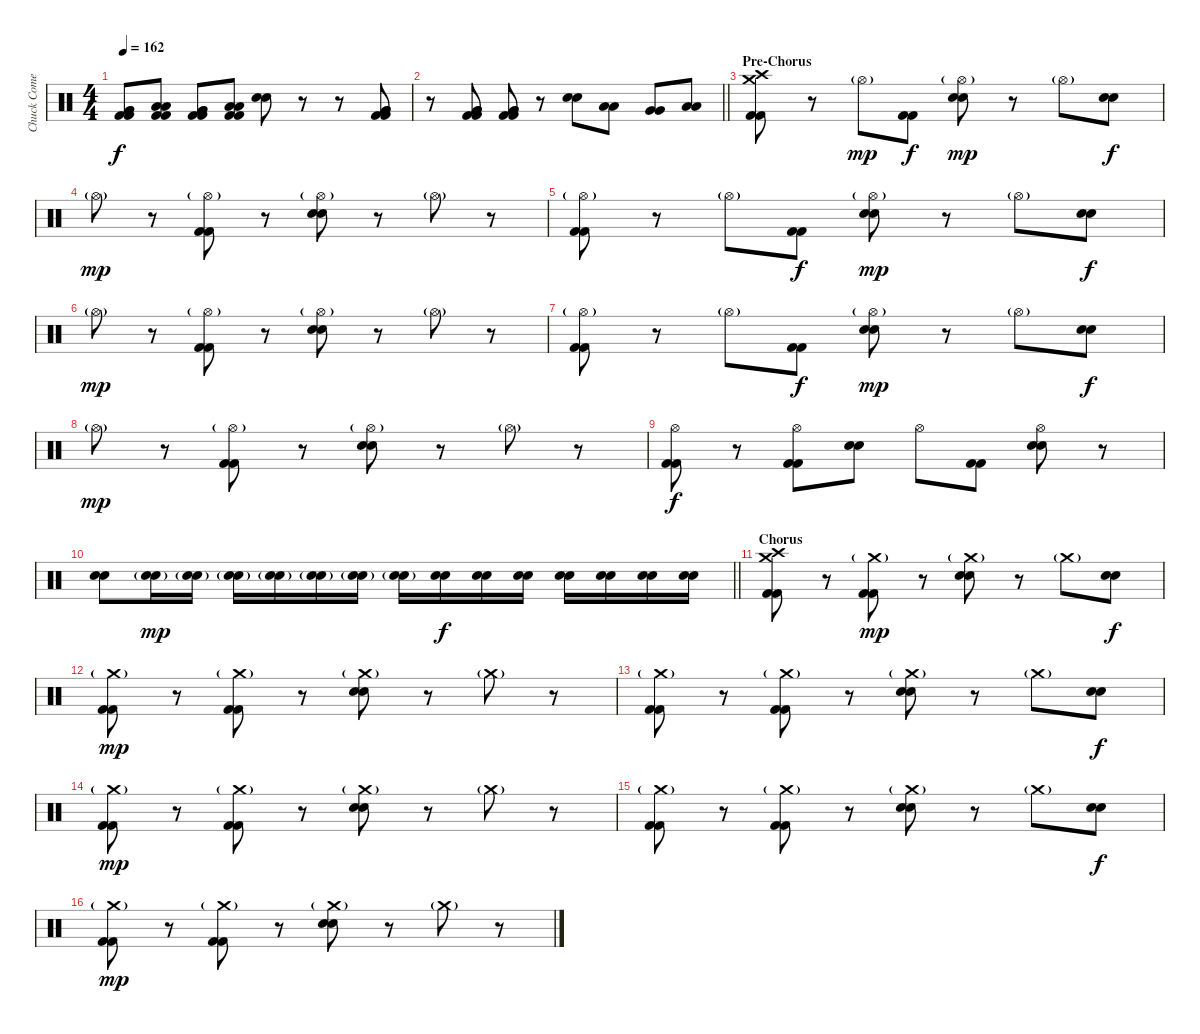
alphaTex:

\track ("Chuck Comeau" "Chuck Come") {instrument percussion}
\staff {score}
\articulation defaults
\ts (4 4)
\tempo 162
\clef neutral
\ks c
("Very Low Tom (hit)" "Very Low Tom (hit)" "Kick (hit) 2" "Kick (hit) 2").8{dy f} ("Low Tom (hit)" "Low Tom (hit)" "Kick (hit) 2" "Kick (hit) 2").8 ("Very Low Tom (hit)" "Very Low Tom (hit)" "Kick (hit) 2" "Kick (hit) 2").8 ("Low Floor Tom (hit)" "Low Floor Tom (hit)" "Kick (hit) 2" "Kick (hit) 2").8 ("Snare (hit) 2" "Snare (hit) 2").8 r.8 r.8 ("Very Low Tom (hit)" "Very Low Tom (hit)" "Kick (hit) 2" "Kick (hit) 2").8 |
\barLineRight lightlight
r.8 ("Very Low Tom (hit)" "Very Low Tom (hit)" "Kick (hit) 2" "Kick (hit) 2").8 ("Very Low Tom (hit)" "Very Low Tom (hit)" "Kick (hit) 2" "Kick (hit) 2").8 r.8 ("Snare (hit) 2" "Snare (hit) 2").8 ("Low Tom (hit)" "Low Tom (hit)").8 ("Very Low Tom (hit)" "Very Low Tom (hit)").8 ("Low Floor Tom (hit)" "Low Floor Tom (hit)").8 |
\section ("" "Pre-Chorus")
("Crash medium (hit)" "Crash high (hit)" "Kick (hit) 2" "Kick (hit) 2").8 r.8 "Hi-Hat (open)"{g}.8{dy mp} ("Kick (hit) 2" "Kick (hit) 2").8{dy f} ("Hi-Hat (open)"{g} "Snare (hit) 2" "Snare (hit) 2").8{dy mp} r.8 "Hi-Hat (open)"{g}.8 ("Snare (hit) 2" "Snare (hit) 2").8{dy f} |
"Hi-Hat (open)"{g}.8{dy mp} r.8 ("Hi-Hat (open)"{g} "Kick (hit) 2" "Kick (hit) 2").8 r.8 ("Hi-Hat (open)"{g} "Snare (hit) 2" "Snare (hit) 2").8 r.8 "Hi-Hat (open)"{g}.8 r.8 |
("Hi-Hat (open)"{g} "Kick (hit) 2" "Kick (hit) 2").8 r.8 "Hi-Hat (open)"{g}.8 ("Kick (hit) 2" "Kick (hit) 2").8{dy f} ("Hi-Hat (open)"{g} "Snare (hit) 2" "Snare (hit) 2").8{dy mp} r.8 "Hi-Hat (open)"{g}.8 ("Snare (hit) 2" "Snare (hit) 2").8{dy f} |
"Hi-Hat (open)"{g}.8{dy mp} r.8 ("Hi-Hat (open)"{g} "Kick (hit) 2" "Kick (hit) 2").8 r.8 ("Hi-Hat (open)"{g} "Snare (hit) 2" "Snare (hit) 2").8 r.8 "Hi-Hat (open)"{g}.8 r.8 |
("Hi-Hat (open)"{g} "Kick (hit) 2" "Kick (hit) 2").8 r.8 "Hi-Hat (open)"{g}.8 ("Kick (hit) 2" "Kick (hit) 2").8{dy f} ("Hi-Hat (open)"{g} "Snare (hit) 2" "Snare (hit) 2").8{dy mp} r.8 "Hi-Hat (open)"{g}.8 ("Snare (hit) 2" "Snare (hit) 2").8{dy f} |
"Hi-Hat (open)"{g}.8{dy mp} r.8 ("Hi-Hat (open)"{g} "Kick (hit) 2" "Kick (hit) 2").8 r.8 ("Hi-Hat (open)"{g} "Snare (hit) 2" "Snare (hit) 2").8 r.8 "Hi-Hat (open)"{g}.8 r.8 |
("Hi-Hat (open)" "Kick (hit) 2" "Kick (hit) 2").8{dy f} r.8 ("Hi-Hat (open)" "Kick (hit) 2" "Kick (hit) 2").8 ("Snare (hit) 2" "Snare (hit) 2").8 "Hi-Hat (open)".8 ("Kick (hit) 2" "Kick (hit) 2").8 ("Hi-Hat (open)" "Snare (hit) 2" "Snare (hit) 2").8 r.8 |
\barLineRight lightlight
("Snare (hit) 2" "Snare (hit) 2").8 ("Snare (hit) 2"{g} "Snare (hit) 2"{g}).16{dy mp} ("Snare (hit) 2"{g} "Snare (hit) 2"{g}).16 ("Snare (hit) 2"{g} "Snare (hit) 2"{g}).16 ("Snare (hit) 2"{g} "Snare (hit) 2"{g}).16 ("Snare (hit) 2"{g} "Snare (hit) 2").16 ("Snare (hit) 2"{g} "Snare (hit) 2").16 ("Snare (hit) 2"{g} "Snare (hit) 2").16 ("Snare (hit) 2" "Snare (hit) 2").16{dy f} ("Snare (hit) 2" "Snare (hit) 2").16 ("Snare (hit) 2" "Snare (hit) 2").16 ("Snare (hit) 2" "Snare (hit) 2").16 ("Snare (hit) 2" "Snare (hit) 2").16 ("Snare (hit) 2" "Snare (hit) 2").16 ("Snare (hit) 2" "Snare (hit) 2").16 |
\section ("" "Chorus")
("Crash medium (hit)" "Crash high (hit)" "Kick (hit) 2" "Kick (hit) 2").8 r.8 ("Crash medium (hit)"{g} "Kick (hit) 2" "Kick (hit) 2").8{dy mp} r.8 ("Crash medium (hit)"{g} "Snare (hit) 2" "Snare (hit) 2").8 r.8 "Crash medium (hit)"{g}.8 ("Snare (hit) 2" "Snare (hit) 2").8{dy f} |
("Crash medium (hit)"{g} "Kick (hit) 2" "Kick (hit) 2").8{dy mp} r.8 ("Crash medium (hit)"{g} "Kick (hit) 2" "Kick (hit) 2").8 r.8 ("Crash medium (hit)"{g} "Snare (hit) 2" "Snare (hit) 2").8 r.8 "Crash medium (hit)"{g}.8 r.8 |
("Crash medium (hit)"{g} "Kick (hit) 2" "Kick (hit) 2").8 r.8 ("Crash medium (hit)"{g} "Kick (hit) 2" "Kick (hit) 2").8 r.8 ("Crash medium (hit)"{g} "Snare (hit) 2" "Snare (hit) 2").8 r.8 "Crash medium (hit)"{g}.8 ("Snare (hit) 2" "Snare (hit) 2").8{dy f} |
("Crash medium (hit)"{g} "Kick (hit) 2" "Kick (hit) 2").8{dy mp} r.8 ("Crash medium (hit)"{g} "Kick (hit) 2" "Kick (hit) 2").8 r.8 ("Crash medium (hit)"{g} "Snare (hit) 2" "Snare (hit) 2").8 r.8 "Crash medium (hit)"{g}.8 r.8 |
("Crash medium (hit)"{g} "Kick (hit) 2" "Kick (hit) 2").8 r.8 ("Crash medium (hit)"{g} "Kick (hit) 2" "Kick (hit) 2").8 r.8 ("Crash medium (hit)"{g} "Snare (hit) 2" "Snare (hit) 2").8 r.8 "Crash medium (hit)"{g}.8 ("Snare (hit) 2" "Snare (hit) 2").8{dy f} |
("Crash medium (hit)"{g} "Kick (hit) 2" "Kick (hit) 2").8{dy mp} r.8 ("Crash medium (hit)"{g} "Kick (hit) 2" "Kick (hit) 2").8 r.8 ("Crash medium (hit)"{g} "Snare (hit) 2" "Snare (hit) 2").8 r.8 "Crash medium (hit)"{g}.8 r.8
